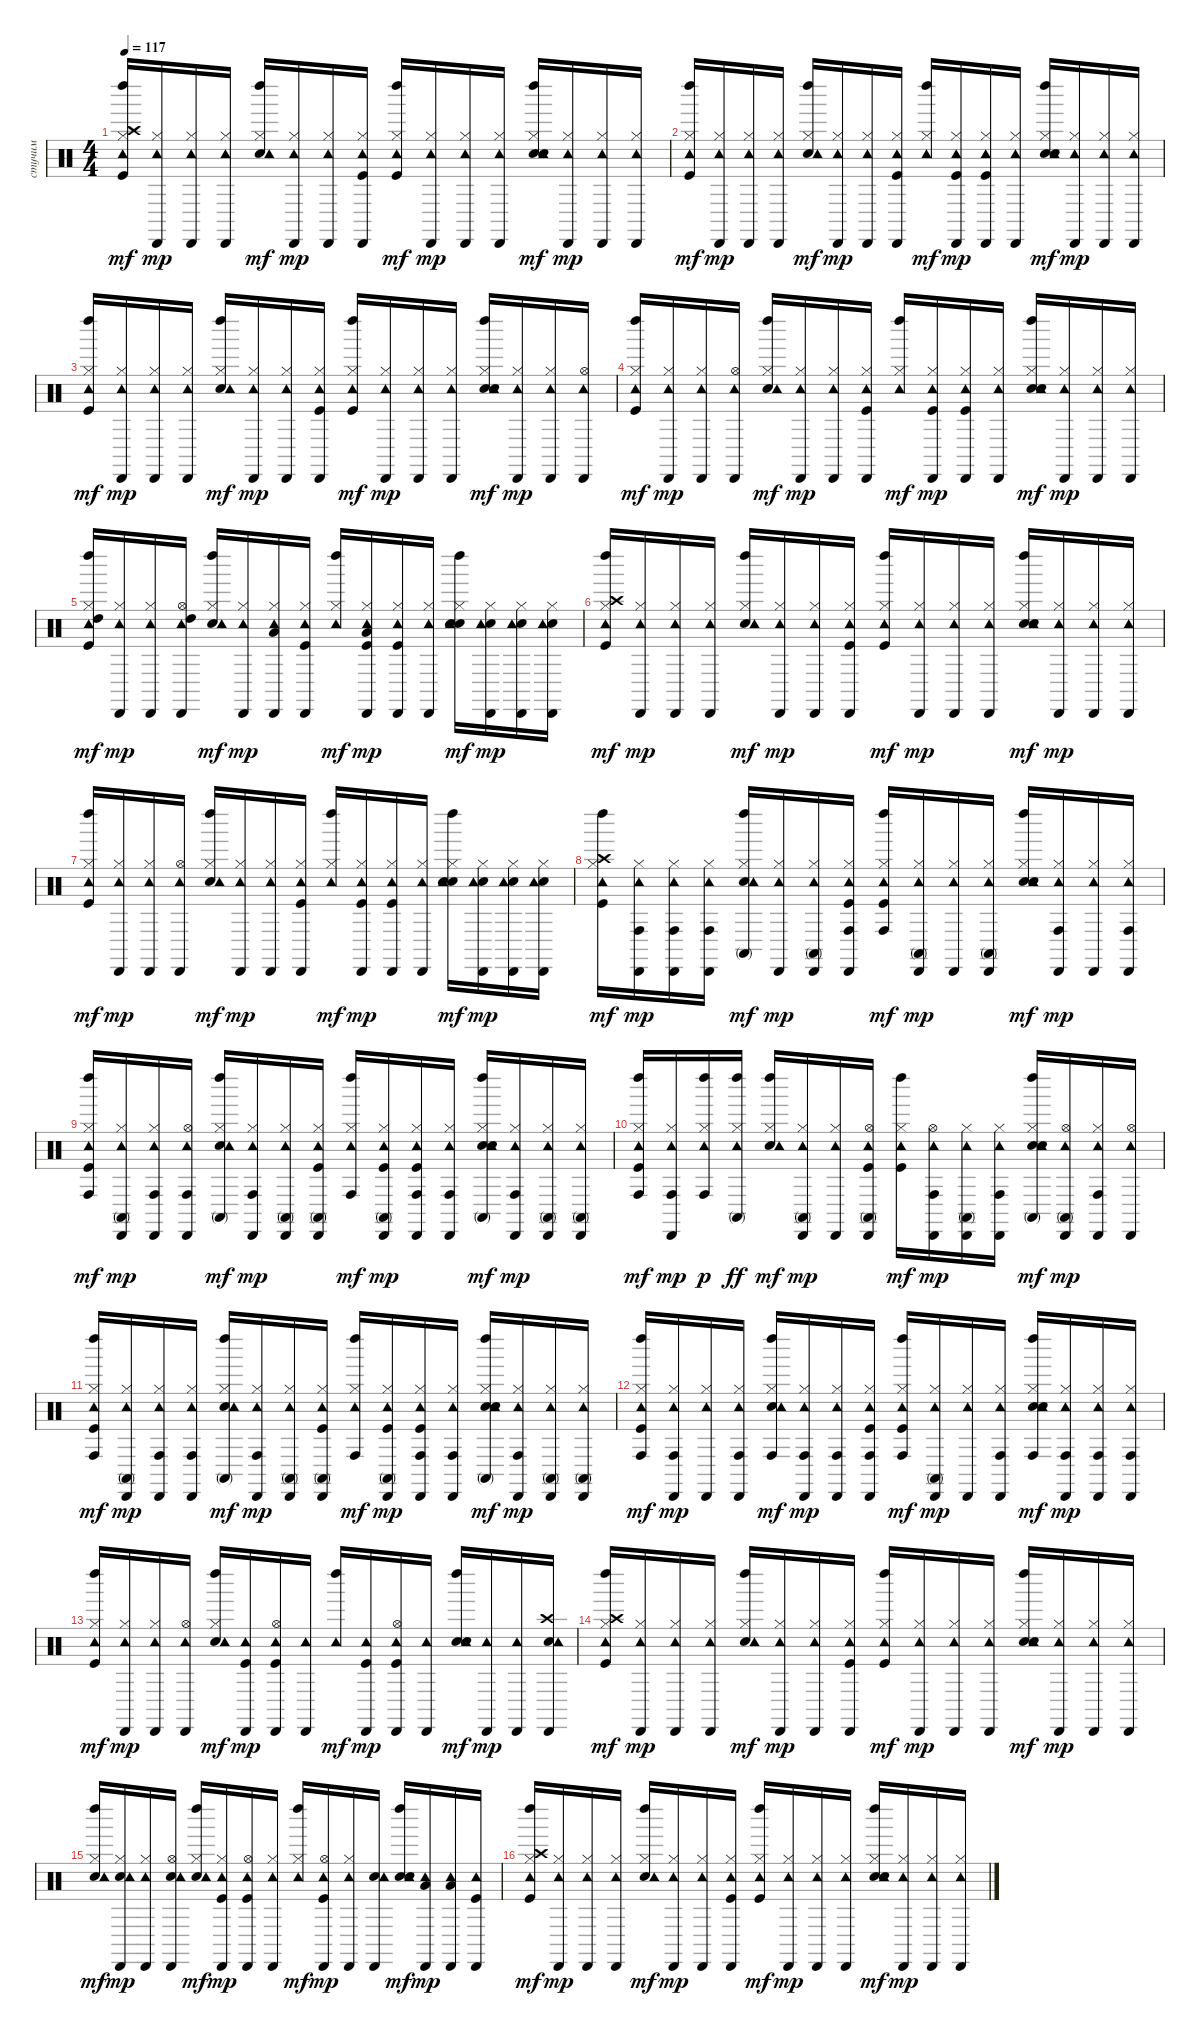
\track ("стучим" "стучим") {instrument percussion}
\staff {score}
\articulation defaults
\ts (4 4)
\tempo 117
\clef neutral
\ks c
("Kick (hit)" "Hi-Hat (closed)" "Crash high (hit)" "Tambourine (hit)" "Left Maraca (hit)").16{dy mf} ("Hi-Hat (closed)" "Tambourine (hit)" "Cabasa (hit)").16{dy mp} ("Hi-Hat (closed)" "Tambourine (hit)" "Cabasa (hit)").16 ("Hi-Hat (closed)" "Tambourine (hit)" "Cabasa (hit)").16 ("Snare (hit) 2" "Hi-Hat (closed)" "Tambourine (hit)" "Left Maraca (hit)").16{dy mf} ("Hi-Hat (closed)" "Tambourine (hit)" "Cabasa (hit)").16{dy mp} ("Hi-Hat (closed)" "Tambourine (hit)" "Cabasa (hit)").16 ("Kick (hit)" "Hi-Hat (closed)" "Tambourine (hit)" "Cabasa (hit)").16 ("Kick (hit)" "Hi-Hat (closed)" "Tambourine (hit)" "Left Maraca (hit)").16{dy mf} ("Hi-Hat (closed)" "Tambourine (hit)" "Cabasa (hit)").16{dy mp} ("Hi-Hat (closed)" "Tambourine (hit)" "Cabasa (hit)").16 ("Hi-Hat (closed)" "Tambourine (hit)" "Cabasa (hit)").16 ("Snare (hit) 2" "Hi-Hat (closed)" "Tambourine (hit)" "Hand Clap (hit)" "Left Maraca (hit)").16{dy mf} ("Hi-Hat (closed)" "Tambourine (hit)" "Cabasa (hit)").16{dy mp} ("Hi-Hat (closed)" "Tambourine (hit)" "Cabasa (hit)").16 ("Hi-Hat (closed)" "Tambourine (hit)" "Cabasa (hit)").16 |
("Kick (hit)" "Hi-Hat (closed)" "Tambourine (hit)" "Left Maraca (hit)").16{dy mf} ("Hi-Hat (closed)" "Tambourine (hit)" "Cabasa (hit)").16{dy mp} ("Hi-Hat (closed)" "Tambourine (hit)" "Cabasa (hit)").16 ("Hi-Hat (closed)" "Tambourine (hit)" "Cabasa (hit)").16 ("Snare (hit) 2" "Hi-Hat (closed)" "Tambourine (hit)" "Left Maraca (hit)").16{dy mf} ("Hi-Hat (closed)" "Tambourine (hit)" "Cabasa (hit)").16{dy mp} ("Hi-Hat (closed)" "Tambourine (hit)" "Cabasa (hit)").16 ("Kick (hit)" "Hi-Hat (closed)" "Tambourine (hit)" "Cabasa (hit)").16 ("Hi-Hat (closed)" "Tambourine (hit)" "Left Maraca (hit)").16{dy mf} ("Kick (hit)" "Hi-Hat (closed)" "Tambourine (hit)" "Cabasa (hit)").16{dy mp} ("Kick (hit)" "Hi-Hat (closed)" "Tambourine (hit)" "Cabasa (hit)").16 ("Hi-Hat (closed)" "Tambourine (hit)" "Cabasa (hit)").16 ("Snare (hit) 2" "Hi-Hat (closed)" "Tambourine (hit)" "Hand Clap (hit)" "Left Maraca (hit)").16{dy mf} ("Hi-Hat (closed)" "Tambourine (hit)" "Cabasa (hit)").16{dy mp} ("Hi-Hat (closed)" "Tambourine (hit)" "Cabasa (hit)").16 ("Hi-Hat (closed)" "Tambourine (hit)" "Cabasa (hit)").16 |
("Kick (hit)" "Hi-Hat (closed)" "Tambourine (hit)" "Left Maraca (hit)").16{dy mf} ("Hi-Hat (closed)" "Tambourine (hit)" "Cabasa (hit)").16{dy mp} ("Hi-Hat (closed)" "Tambourine (hit)" "Cabasa (hit)").16 ("Hi-Hat (closed)" "Tambourine (hit)" "Cabasa (hit)").16 ("Snare (hit) 2" "Hi-Hat (closed)" "Tambourine (hit)" "Left Maraca (hit)").16{dy mf} ("Hi-Hat (closed)" "Tambourine (hit)" "Cabasa (hit)").16{dy mp} ("Hi-Hat (closed)" "Tambourine (hit)" "Cabasa (hit)").16 ("Kick (hit)" "Hi-Hat (closed)" "Tambourine (hit)" "Cabasa (hit)").16 ("Kick (hit)" "Hi-Hat (closed)" "Tambourine (hit)" "Left Maraca (hit)").16{dy mf} ("Hi-Hat (closed)" "Tambourine (hit)" "Cabasa (hit)").16{dy mp} ("Hi-Hat (closed)" "Tambourine (hit)" "Cabasa (hit)").16 ("Hi-Hat (closed)" "Tambourine (hit)" "Cabasa (hit)").16 ("Snare (hit) 2" "Hi-Hat (closed)" "Tambourine (hit)" "Hand Clap (hit)" "Left Maraca (hit)").16{dy mf} ("Hi-Hat (closed)" "Tambourine (hit)" "Cabasa (hit)").16{dy mp} ("Hi-Hat (closed)" "Tambourine (hit)" "Cabasa (hit)").16 ("Hi-Hat (open)" "Tambourine (hit)" "Cabasa (hit)").16 |
("Kick (hit)" "Hi-Hat (closed)" "Tambourine (hit)" "Left Maraca (hit)").16{dy mf} ("Hi-Hat (closed)" "Tambourine (hit)" "Cabasa (hit)").16{dy mp} ("Hi-Hat (closed)" "Tambourine (hit)" "Cabasa (hit)").16 ("Hi-Hat (open)" "Tambourine (hit)" "Cabasa (hit)").16 ("Snare (hit) 2" "Hi-Hat (closed)" "Tambourine (hit)" "Left Maraca (hit)").16{dy mf} ("Hi-Hat (closed)" "Tambourine (hit)" "Cabasa (hit)").16{dy mp} ("Hi-Hat (closed)" "Tambourine (hit)" "Cabasa (hit)").16 ("Kick (hit)" "Hi-Hat (closed)" "Tambourine (hit)" "Cabasa (hit)").16 ("Hi-Hat (closed)" "Tambourine (hit)" "Left Maraca (hit)").16{dy mf} ("Kick (hit)" "Hi-Hat (closed)" "Tambourine (hit)" "Cabasa (hit)").16{dy mp} ("Kick (hit)" "Hi-Hat (closed)" "Tambourine (hit)" "Cabasa (hit)").16 ("Hi-Hat (closed)" "Tambourine (hit)" "Cabasa (hit)").16 ("Snare (hit) 2" "Hi-Hat (closed)" "Tambourine (hit)" "Hand Clap (hit)" "Left Maraca (hit)").16{dy mf} ("Hi-Hat (closed)" "Tambourine (hit)" "Cabasa (hit)").16{dy mp} ("Hi-Hat (closed)" "Tambourine (hit)" "Cabasa (hit)").16 ("Hi-Hat (closed)" "Tambourine (hit)" "Cabasa (hit)").16 |
("Kick (hit)" "Hi-Hat (closed)" "High Tom (hit)" "Tambourine (hit)" "Left Maraca (hit)").16{dy mf} ("Hi-Hat (closed)" "Tambourine (hit)" "Cabasa (hit)").16{dy mp} ("Hi-Hat (closed)" "Tambourine (hit)" "Cabasa (hit)").16 ("Hi-Hat (open)" "High Tom (hit)" "Tambourine (hit)" "Cabasa (hit)").16 ("Snare (hit) 2" "Hi-Hat (closed)" "Tambourine (hit)" "Left Maraca (hit)").16{dy mf} ("Hi-Hat (closed)" "Tambourine (hit)" "Cabasa (hit)").16{dy mp} ("Hi-Hat (closed)" "Low Tom (hit)" "Tambourine (hit)" "Cabasa (hit)").16 ("Kick (hit)" "Hi-Hat (closed)" "Tambourine (hit)" "Cabasa (hit)").16 ("Hi-Hat (closed)" "Tambourine (hit)" "Left Maraca (hit)").16{dy mf} ("Kick (hit)" "Hi-Hat (closed)" "Low Floor Tom (hit)" "Tambourine (hit)" "Cabasa (hit)").16{dy mp} ("Kick (hit)" "Hi-Hat (closed)" "Tambourine (hit)" "Cabasa (hit)").16 ("Hi-Hat (closed)" "Tambourine (hit)" "Cabasa (hit)").16 ("Snare (hit) 2" "Hi-Hat (closed)" "Tambourine (hit)" "Hand Clap (hit)" "Left Maraca (hit)").16{dy mf} ("Snare (hit) 2" "Hi-Hat (closed)" "Tambourine (hit)" "Cabasa (hit)").16{dy mp} ("Snare (hit) 2" "Hi-Hat (closed)" "Tambourine (hit)" "Cabasa (hit)").16 ("Snare (hit) 2" "Hi-Hat (closed)" "Tambourine (hit)" "Cabasa (hit)").16 |
("Kick (hit)" "Hi-Hat (closed)" "Crash high (hit)" "Tambourine (hit)" "Left Maraca (hit)").16{dy mf} ("Hi-Hat (closed)" "Tambourine (hit)" "Cabasa (hit)").16{dy mp} ("Hi-Hat (closed)" "Tambourine (hit)" "Cabasa (hit)").16 ("Hi-Hat (closed)" "Tambourine (hit)" "Cabasa (hit)").16 ("Snare (hit) 2" "Hi-Hat (closed)" "Tambourine (hit)" "Left Maraca (hit)").16{dy mf} ("Hi-Hat (closed)" "Tambourine (hit)" "Cabasa (hit)").16{dy mp} ("Hi-Hat (closed)" "Tambourine (hit)" "Cabasa (hit)").16 ("Kick (hit)" "Hi-Hat (closed)" "Tambourine (hit)" "Cabasa (hit)").16 ("Kick (hit)" "Hi-Hat (closed)" "Tambourine (hit)" "Left Maraca (hit)").16{dy mf} ("Hi-Hat (closed)" "Tambourine (hit)" "Cabasa (hit)").16{dy mp} ("Hi-Hat (closed)" "Tambourine (hit)" "Cabasa (hit)").16 ("Hi-Hat (closed)" "Tambourine (hit)" "Cabasa (hit)").16 ("Snare (hit) 2" "Hi-Hat (closed)" "Tambourine (hit)" "Hand Clap (hit)" "Left Maraca (hit)").16{dy mf} ("Hi-Hat (closed)" "Tambourine (hit)" "Cabasa (hit)").16{dy mp} ("Hi-Hat (closed)" "Tambourine (hit)" "Cabasa (hit)").16 ("Hi-Hat (closed)" "Tambourine (hit)" "Cabasa (hit)").16 |
("Kick (hit)" "Hi-Hat (closed)" "Tambourine (hit)" "Left Maraca (hit)").16{dy mf} ("Hi-Hat (closed)" "Tambourine (hit)" "Cabasa (hit)").16{dy mp} ("Hi-Hat (closed)" "Tambourine (hit)" "Cabasa (hit)").16 ("Hi-Hat (open)" "Tambourine (hit)" "Cabasa (hit)").16 ("Snare (hit) 2" "Hi-Hat (closed)" "Tambourine (hit)" "Left Maraca (hit)").16{dy mf} ("Hi-Hat (closed)" "Tambourine (hit)" "Cabasa (hit)").16{dy mp} ("Hi-Hat (closed)" "Tambourine (hit)" "Cabasa (hit)").16 ("Kick (hit)" "Hi-Hat (closed)" "Tambourine (hit)" "Cabasa (hit)").16 ("Hi-Hat (closed)" "Tambourine (hit)" "Left Maraca (hit)").16{dy mf} ("Kick (hit)" "Hi-Hat (closed)" "Tambourine (hit)" "Cabasa (hit)").16{dy mp} ("Kick (hit)" "Hi-Hat (closed)" "Tambourine (hit)" "Cabasa (hit)").16 ("Hi-Hat (closed)" "Tambourine (hit)" "Cabasa (hit)").16 ("Snare (hit) 2" "Hi-Hat (closed)" "Tambourine (hit)" "Hand Clap (hit)" "Left Maraca (hit)").16{dy mf} ("Snare (hit) 2" "Hi-Hat (closed)" "Tambourine (hit)" "Cabasa (hit)").16{dy mp} ("Snare (hit) 2" "Hi-Hat (closed)" "Tambourine (hit)" "Cabasa (hit)").16 ("Snare (hit) 2" "Hi-Hat (closed)" "Tambourine (hit)" "Cabasa (hit)").16 |
("Kick (hit)" "Hi-Hat (closed)" "Crash high (hit)" "Tambourine (hit)" "Left Maraca (hit)").16{dy mf} ("Hi-Hat (closed)" "Conga high (hit)" "Tambourine (hit)" "Cabasa (hit)").16{dy mp} ("Hi-Hat (closed)" "Conga high (hit)" "Tambourine (hit)" "Cabasa (hit)").16 ("Hi-Hat (closed)" "Conga high (hit)" "Tambourine (hit)" "Cabasa (hit)").16 ("Snare (hit) 2" "Hi-Hat (closed)" "Conga high (mute)" "Tambourine (hit)" "Left Maraca (hit)").16{dy mf} ("Hi-Hat (closed)" "Tambourine (hit)" "Cabasa (hit)").16{dy mp} ("Hi-Hat (closed)" "Conga high (mute)" "Tambourine (hit)" "Cabasa (hit)").16 ("Kick (hit)" "Hi-Hat (closed)" "Conga high (hit)" "Tambourine (hit)" "Cabasa (hit)").16 ("Kick (hit)" "Hi-Hat (closed)" "Conga high (hit)" "Tambourine (hit)" "Left Maraca (hit)").16{dy mf} ("Hi-Hat (closed)" "Conga high (mute)" "Tambourine (hit)" "Cabasa (hit)").16{dy mp} ("Hi-Hat (closed)" "Tambourine (hit)" "Cabasa (hit)").16 ("Hi-Hat (closed)" "Conga high (mute)" "Tambourine (hit)" "Cabasa (hit)").16 ("Snare (hit) 2" "Hi-Hat (closed)" "Tambourine (hit)" "Hand Clap (hit)" "Left Maraca (hit)").16{dy mf} ("Hi-Hat (closed)" "Conga high (hit)" "Tambourine (hit)" "Cabasa (hit)").16{dy mp} ("Hi-Hat (closed)" "Tambourine (hit)" "Cabasa (hit)").16 ("Hi-Hat (closed)" "Conga high (hit)" "Tambourine (hit)" "Cabasa (hit)").16 |
("Kick (hit)" "Hi-Hat (closed)" "Conga high (hit)" "Tambourine (hit)" "Left Maraca (hit)").16{dy mf} ("Hi-Hat (closed)" "Conga high (mute)" "Tambourine (hit)" "Cabasa (hit)").16{dy mp} ("Hi-Hat (closed)" "Conga high (hit)" "Tambourine (hit)" "Cabasa (hit)").16 ("Hi-Hat (open)" "Conga high (hit)" "Tambourine (hit)" "Cabasa (hit)").16 ("Snare (hit) 2" "Hi-Hat (closed)" "Conga high (mute)" "Tambourine (hit)" "Left Maraca (hit)").16{dy mf} ("Hi-Hat (closed)" "Conga high (hit)" "Tambourine (hit)" "Cabasa (hit)").16{dy mp} ("Hi-Hat (closed)" "Conga high (mute)" "Tambourine (hit)" "Cabasa (hit)").16 ("Kick (hit)" "Hi-Hat (closed)" "Conga high (mute)" "Tambourine (hit)" "Cabasa (hit)").16 ("Hi-Hat (closed)" "Conga high (hit)" "Tambourine (hit)" "Left Maraca (hit)").16{dy mf} ("Kick (hit)" "Hi-Hat (closed)" "Conga high (mute)" "Tambourine (hit)" "Cabasa (hit)").16{dy mp} ("Kick (hit)" "Hi-Hat (closed)" "Conga high (hit)" "Tambourine (hit)" "Cabasa (hit)").16 ("Hi-Hat (closed)" "Conga high (hit)" "Tambourine (hit)" "Cabasa (hit)").16 ("Snare (hit) 2" "Hi-Hat (closed)" "Conga high (mute)" "Tambourine (hit)" "Hand Clap (hit)" "Left Maraca (hit)").16{dy mf} ("Hi-Hat (closed)" "Conga high (hit)" "Tambourine (hit)" "Cabasa (hit)").16{dy mp} ("Hi-Hat (closed)" "Conga high (mute)" "Tambourine (hit)" "Cabasa (hit)").16 ("Hi-Hat (closed)" "Conga high (mute)" "Tambourine (hit)" "Cabasa (hit)").16 |
("Kick (hit)" "Hi-Hat (closed)" "Conga high (hit)" "Tambourine (hit)" "Left Maraca (hit)").16{dy mf} ("Hi-Hat (closed)" "Conga high (hit)" "Tambourine (hit)" "Cabasa (hit)").16{dy mp} ("Hi-Hat (closed)" "Conga high (hit)" "Tambourine (hit)" "Left Maraca (hit)").16{dy p} ("Hi-Hat (closed)" "Conga high (mute)" "Tambourine (hit)" "Left Maraca (hit)").16{dy ff} ("Snare (hit) 2" "Hi-Hat (closed)" "Tambourine (hit)" "Left Maraca (hit)").16{dy mf} ("Hi-Hat (closed)" "Conga high (mute)" "Tambourine (hit)" "Cabasa (hit)").16{dy mp} ("Hi-Hat (closed)" "Tambourine (hit)" "Cabasa (hit)").16 ("Kick (hit)" "Hi-Hat (open)" "Conga high (mute)" "Tambourine (hit)" "Cabasa (hit)").16 ("Kick (hit)" "Hi-Hat (closed)" "Tambourine (hit)" "Left Maraca (hit)").16{dy mf} ("Hi-Hat (open)" "Conga high (hit)" "Tambourine (hit)" "Cabasa (hit)").16{dy mp} ("Hi-Hat (closed)" "Conga high (mute)" "Tambourine (hit)" "Cabasa (hit)").16 ("Hi-Hat (closed)" "Conga high (hit)" "Tambourine (hit)" "Cabasa (hit)").16 ("Snare (hit) 2" "Hi-Hat (closed)" "Conga high (mute)" "Tambourine (hit)" "Hand Clap (hit)" "Left Maraca (hit)").16{dy mf} ("Hi-Hat (open)" "Conga high (mute)" "Tambourine (hit)" "Cabasa (hit)").16{dy mp} ("Hi-Hat (closed)" "Conga high (hit)" "Tambourine (hit)" "Cabasa (hit)").16 ("Hi-Hat (open)" "Tambourine (hit)" "Cabasa (hit)").16 |
("Kick (hit)" "Hi-Hat (closed)" "Conga high (hit)" "Tambourine (hit)" "Left Maraca (hit)").16{dy mf} ("Hi-Hat (closed)" "Conga high (mute)" "Tambourine (hit)" "Cabasa (hit)").16{dy mp} ("Hi-Hat (closed)" "Conga high (hit)" "Tambourine (hit)" "Cabasa (hit)").16 ("Hi-Hat (closed)" "Conga high (hit)" "Tambourine (hit)" "Cabasa (hit)").16 ("Snare (hit) 2" "Hi-Hat (closed)" "Conga high (mute)" "Tambourine (hit)" "Left Maraca (hit)").16{dy mf} ("Hi-Hat (closed)" "Conga high (hit)" "Tambourine (hit)" "Cabasa (hit)").16{dy mp} ("Hi-Hat (closed)" "Conga high (mute)" "Tambourine (hit)" "Cabasa (hit)").16 ("Kick (hit)" "Hi-Hat (closed)" "Conga high (mute)" "Tambourine (hit)" "Cabasa (hit)").16 ("Hi-Hat (closed)" "Conga high (hit)" "Tambourine (hit)" "Left Maraca (hit)").16{dy mf} ("Kick (hit)" "Hi-Hat (closed)" "Conga high (mute)" "Tambourine (hit)" "Cabasa (hit)").16{dy mp} ("Kick (hit)" "Hi-Hat (closed)" "Conga high (hit)" "Tambourine (hit)" "Cabasa (hit)").16 ("Hi-Hat (closed)" "Conga high (hit)" "Tambourine (hit)" "Cabasa (hit)").16 ("Snare (hit) 2" "Hi-Hat (closed)" "Conga high (mute)" "Tambourine (hit)" "Hand Clap (hit)" "Left Maraca (hit)").16{dy mf} ("Hi-Hat (closed)" "Conga high (hit)" "Tambourine (hit)" "Cabasa (hit)").16{dy mp} ("Hi-Hat (closed)" "Conga high (mute)" "Tambourine (hit)" "Cabasa (hit)").16 ("Hi-Hat (closed)" "Conga high (mute)" "Tambourine (hit)" "Cabasa (hit)").16 |
("Kick (hit)" "Hi-Hat (closed)" "Conga high (hit)" "Tambourine (hit)" "Left Maraca (hit)").16{dy mf} ("Hi-Hat (closed)" "Conga high (hit)" "Tambourine (hit)" "Cabasa (hit)").16{dy mp} ("Hi-Hat (closed)" "Tambourine (hit)" "Cabasa (hit)").16 ("Hi-Hat (closed)" "Conga high (hit)" "Tambourine (hit)" "Cabasa (hit)").16 ("Snare (hit) 2" "Hi-Hat (closed)" "Conga high (hit)" "Tambourine (hit)" "Left Maraca (hit)").16{dy mf} ("Hi-Hat (closed)" "Conga high (hit)" "Tambourine (hit)" "Cabasa (hit)").16{dy mp} ("Hi-Hat (closed)" "Conga high (hit)" "Tambourine (hit)" "Cabasa (hit)").16 ("Kick (hit)" "Hi-Hat (closed)" "Conga high (hit)" "Tambourine (hit)" "Cabasa (hit)").16 ("Kick (hit)" "Hi-Hat (closed)" "Conga high (hit)" "Tambourine (hit)" "Left Maraca (hit)").16{dy mf} ("Hi-Hat (closed)" "Conga high (mute)" "Tambourine (hit)" "Cabasa (hit)").16{dy mp} ("Hi-Hat (closed)" "Tambourine (hit)" "Cabasa (hit)").16 ("Hi-Hat (closed)" "Conga high (hit)" "Tambourine (hit)" "Cabasa (hit)").16 ("Snare (hit) 2" "Hi-Hat (closed)" "Conga high (hit)" "Tambourine (hit)" "Hand Clap (hit)" "Left Maraca (hit)").16{dy mf} ("Hi-Hat (closed)" "Conga high (hit)" "Tambourine (hit)" "Cabasa (hit)").16{dy mp} ("Hi-Hat (closed)" "Conga high (hit)" "Tambourine (hit)" "Cabasa (hit)").16 ("Hi-Hat (closed)" "Conga high (hit)" "Tambourine (hit)" "Cabasa (hit)").16 |
("Kick (hit)" "Hi-Hat (closed)" "Tambourine (hit)" "Left Maraca (hit)").16{dy mf} ("Hi-Hat (closed)" "Tambourine (hit)" "Cabasa (hit)").16{dy mp} ("Hi-Hat (closed)" "Tambourine (hit)" "Cabasa (hit)").16 ("Hi-Hat (open)" "Tambourine (hit)" "Cabasa (hit)").16 ("Snare (hit) 2" "Hi-Hat (closed)" "Tambourine (hit)" "Left Maraca (hit)").16{dy mf} ("Kick (hit)" "Tambourine (hit)" "Cabasa (hit)").16{dy mp} ("Kick (hit)" "Hi-Hat (open)" "Tambourine (hit)" "Cabasa (hit)").16 ("Tambourine (hit)" "Cabasa (hit)").16 ("Tambourine (hit)" "Left Maraca (hit)").16{dy mf} ("Kick (hit)" "Tambourine (hit)" "Cabasa (hit)").16{dy mp} ("Kick (hit)" "Hi-Hat (open)" "Tambourine (hit)" "Cabasa (hit)").16 ("Tambourine (hit)" "Cabasa (hit)").16 ("Snare (hit) 2" "Tambourine (hit)" "Hand Clap (hit)" "Left Maraca (hit)").16{dy mf} ("Tambourine (hit)" "Cabasa (hit)").16{dy mp} ("Tambourine (hit)" "Cabasa (hit)").16 ("Snare (hit) 2" "Crash high (hit)" "Tambourine (hit)" "Cabasa (hit)").16 |
("Kick (hit)" "Hi-Hat (closed)" "Crash high (hit)" "Tambourine (hit)" "Left Maraca (hit)").16{dy mf} ("Hi-Hat (closed)" "Tambourine (hit)" "Cabasa (hit)").16{dy mp} ("Hi-Hat (closed)" "Tambourine (hit)" "Cabasa (hit)").16 ("Hi-Hat (closed)" "Tambourine (hit)" "Cabasa (hit)").16 ("Snare (hit) 2" "Hi-Hat (closed)" "Tambourine (hit)" "Left Maraca (hit)").16{dy mf} ("Hi-Hat (closed)" "Tambourine (hit)" "Cabasa (hit)").16{dy mp} ("Hi-Hat (closed)" "Tambourine (hit)" "Cabasa (hit)").16 ("Kick (hit)" "Hi-Hat (closed)" "Tambourine (hit)" "Cabasa (hit)").16 ("Kick (hit)" "Hi-Hat (closed)" "Tambourine (hit)" "Left Maraca (hit)").16{dy mf} ("Hi-Hat (closed)" "Tambourine (hit)" "Cabasa (hit)").16{dy mp} ("Hi-Hat (closed)" "Tambourine (hit)" "Cabasa (hit)").16 ("Hi-Hat (closed)" "Tambourine (hit)" "Cabasa (hit)").16 ("Snare (hit) 2" "Hi-Hat (closed)" "Tambourine (hit)" "Hand Clap (hit)" "Left Maraca (hit)").16{dy mf} ("Hi-Hat (closed)" "Tambourine (hit)" "Cabasa (hit)").16{dy mp} ("Hi-Hat (closed)" "Tambourine (hit)" "Cabasa (hit)").16 ("Hi-Hat (closed)" "Tambourine (hit)" "Cabasa (hit)").16 |
("Snare (hit) 2" "Hi-Hat (closed)" "Tambourine (hit)" "Left Maraca (hit)").16{dy mf} ("Snare (hit) 2" "Hi-Hat (closed)" "Tambourine (hit)" "Cabasa (hit)").16{dy mp} ("Hi-Hat (closed)" "Tambourine (hit)" "Cabasa (hit)").16 ("Snare (hit) 2" "Hi-Hat (open)" "Tambourine (hit)" "Cabasa (hit)").16 ("Snare (hit) 2" "Hi-Hat (closed)" "Tambourine (hit)" "Left Maraca (hit)").16{dy mf} ("Kick (hit)" "Hi-Hat (closed)" "Tambourine (hit)" "Cabasa (hit)").16{dy mp} ("Kick (hit)" "Hi-Hat (open)" "Tambourine (hit)" "Cabasa (hit)").16 ("Hi-Hat (closed)" "Tambourine (hit)" "Cabasa (hit)").16 ("Hi-Hat (closed)" "Tambourine (hit)" "Left Maraca (hit)").16{dy mf} ("Kick (hit)" "Hi-Hat (open)" "Tambourine (hit)" "Cabasa (hit)").16{dy mp} ("Hi-Hat (closed)" "Tambourine (hit)" "Cabasa (hit)").16 ("Snare (hit) 2" "Tambourine (hit)" "Cabasa (hit)").16 ("Snare (hit) 2" "Tambourine (hit)" "Hand Clap (hit)" "Left Maraca (hit)").16{dy mf} ("Low Floor Tom (hit)" "Tambourine (hit)" "Cabasa (hit)").16{dy mp} ("Low Floor Tom (hit)" "Tambourine (hit)" "Cabasa (hit)").16 ("Kick (hit)" "Tambourine (hit)" "Cabasa (hit)").16 |
("Kick (hit)" "Hi-Hat (closed)" "Crash high (hit)" "Tambourine (hit)" "Left Maraca (hit)").16{dy mf} ("Hi-Hat (closed)" "Tambourine (hit)" "Cabasa (hit)").16{dy mp} ("Hi-Hat (closed)" "Tambourine (hit)" "Cabasa (hit)").16 ("Hi-Hat (closed)" "Tambourine (hit)" "Cabasa (hit)").16 ("Snare (hit) 2" "Hi-Hat (closed)" "Tambourine (hit)" "Left Maraca (hit)").16{dy mf} ("Hi-Hat (closed)" "Tambourine (hit)" "Cabasa (hit)").16{dy mp} ("Hi-Hat (closed)" "Tambourine (hit)" "Cabasa (hit)").16 ("Kick (hit)" "Hi-Hat (closed)" "Tambourine (hit)" "Cabasa (hit)").16 ("Kick (hit)" "Hi-Hat (closed)" "Tambourine (hit)" "Left Maraca (hit)").16{dy mf} ("Hi-Hat (closed)" "Tambourine (hit)" "Cabasa (hit)").16{dy mp} ("Hi-Hat (closed)" "Tambourine (hit)" "Cabasa (hit)").16 ("Hi-Hat (closed)" "Tambourine (hit)" "Cabasa (hit)").16 ("Snare (hit) 2" "Hi-Hat (closed)" "Tambourine (hit)" "Hand Clap (hit)" "Left Maraca (hit)").16{dy mf} ("Hi-Hat (closed)" "Tambourine (hit)" "Cabasa (hit)").16{dy mp} ("Hi-Hat (closed)" "Tambourine (hit)" "Cabasa (hit)").16 ("Hi-Hat (closed)" "Tambourine (hit)" "Cabasa (hit)").16
